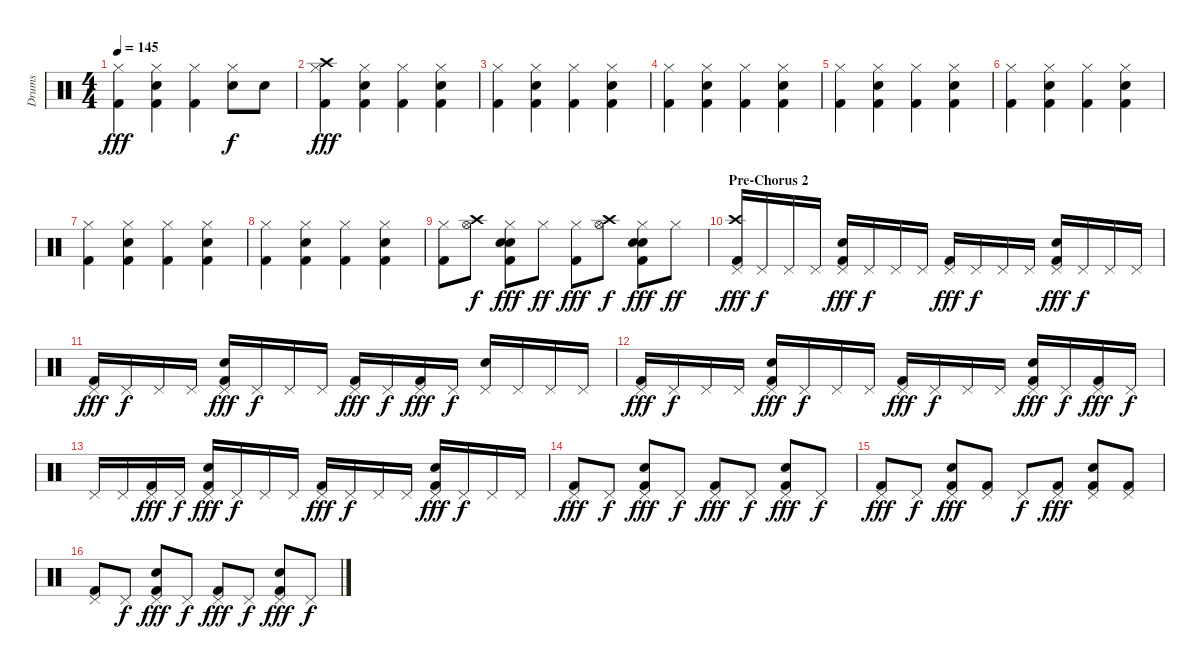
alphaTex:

\track ("Drums" "Drums") {instrument percussion}
\staff {score}
\articulation defaults
\ts (4 4)
\tempo 145
\clef neutral
\ks c
("Hi-Hat (closed)" "Kick (hit) 2").4{dy fff} ("Hi-Hat (closed)" "Electric Snare (hit)" "Kick (hit) 2").4 ("Hi-Hat (closed)" "Kick (hit) 2").4 ("Hi-Hat (closed)" "Electric Snare (hit)").8{dy f} "Electric Snare (hit)".8 |
("Crash high (hit)" "Hi-Hat (closed)" "Kick (hit) 2").4{dy fff} ("Hi-Hat (closed)" "Electric Snare (hit)" "Kick (hit) 2").4 ("Hi-Hat (closed)" "Kick (hit) 2").4 ("Hi-Hat (closed)" "Electric Snare (hit)" "Kick (hit) 2").4 |
("Hi-Hat (closed)" "Kick (hit) 2").4 ("Hi-Hat (closed)" "Electric Snare (hit)" "Kick (hit) 2").4 ("Hi-Hat (closed)" "Kick (hit) 2").4 ("Hi-Hat (closed)" "Electric Snare (hit)" "Kick (hit) 2").4 |
("Hi-Hat (closed)" "Kick (hit) 2").4 ("Hi-Hat (closed)" "Electric Snare (hit)" "Kick (hit) 2").4 ("Hi-Hat (closed)" "Kick (hit) 2").4 ("Hi-Hat (closed)" "Electric Snare (hit)" "Kick (hit) 2").4 |
("Hi-Hat (closed)" "Kick (hit) 2").4 ("Hi-Hat (closed)" "Electric Snare (hit)" "Kick (hit) 2").4 ("Hi-Hat (closed)" "Kick (hit) 2").4 ("Hi-Hat (closed)" "Electric Snare (hit)" "Kick (hit) 2").4 |
("Hi-Hat (closed)" "Kick (hit) 2").4 ("Hi-Hat (closed)" "Electric Snare (hit)" "Kick (hit) 2").4 ("Hi-Hat (closed)" "Kick (hit) 2").4 ("Hi-Hat (closed)" "Electric Snare (hit)" "Kick (hit) 2").4 |
("Hi-Hat (closed)" "Kick (hit) 2").4 ("Hi-Hat (closed)" "Electric Snare (hit)" "Kick (hit) 2").4 ("Hi-Hat (closed)" "Kick (hit) 2").4 ("Hi-Hat (closed)" "Electric Snare (hit)" "Kick (hit) 2").4 |
("Hi-Hat (closed)" "Kick (hit) 2").4 ("Hi-Hat (closed)" "Electric Snare (hit)" "Kick (hit) 2").4 ("Hi-Hat (closed)" "Kick (hit) 2").4 ("Hi-Hat (closed)" "Electric Snare (hit)" "Kick (hit) 2").4 |
("Hi-Hat (closed)" "Kick (hit) 2").8 ("Crash high (hit)" "Hi-Hat (open)").8{dy f} ("Hi-Hat (closed)" "Electric Snare (hit)" "Snare (hit) 2" "Kick (hit) 2").8{dy fff} "Hi-Hat (closed)".8{dy ff} ("Hi-Hat (closed)" "Kick (hit) 2").8{dy fff} ("Crash high (hit)" "Hi-Hat (open)").8{dy f} ("Hi-Hat (closed)" "Electric Snare (hit)" "Snare (hit) 2" "Kick (hit) 2").8{dy fff} "Hi-Hat (closed)".8{dy ff} |
\section ("" "Pre-Chorus 2")
("Crash high (hit)" "Pedal Hi-Hat (hit)" "Kick (hit) 2").16{dy fff} "Pedal Hi-Hat (hit)".16{dy f} "Pedal Hi-Hat (hit)".16 "Pedal Hi-Hat (hit)".16 ("Pedal Hi-Hat (hit)" "Electric Snare (hit)" "Kick (hit) 2").16{dy fff} "Pedal Hi-Hat (hit)".16{dy f} "Pedal Hi-Hat (hit)".16 "Pedal Hi-Hat (hit)".16 ("Pedal Hi-Hat (hit)" "Kick (hit) 2").16{dy fff} "Pedal Hi-Hat (hit)".16{dy f} "Pedal Hi-Hat (hit)".16 "Pedal Hi-Hat (hit)".16 ("Pedal Hi-Hat (hit)" "Electric Snare (hit)" "Kick (hit) 2").16{dy fff} "Pedal Hi-Hat (hit)".16{dy f} "Pedal Hi-Hat (hit)".16 "Pedal Hi-Hat (hit)".16 |
("Pedal Hi-Hat (hit)" "Kick (hit) 2").16{dy fff} "Pedal Hi-Hat (hit)".16{dy f} "Pedal Hi-Hat (hit)".16 "Pedal Hi-Hat (hit)".16 ("Pedal Hi-Hat (hit)" "Electric Snare (hit)" "Kick (hit) 2").16{dy fff} "Pedal Hi-Hat (hit)".16{dy f} "Pedal Hi-Hat (hit)".16 "Pedal Hi-Hat (hit)".16 ("Pedal Hi-Hat (hit)" "Kick (hit) 2").16{dy fff} "Pedal Hi-Hat (hit)".16{dy f} ("Pedal Hi-Hat (hit)" "Kick (hit) 2").16{dy fff} "Pedal Hi-Hat (hit)".16{dy f} ("Pedal Hi-Hat (hit)" "Electric Snare (hit)").16 "Pedal Hi-Hat (hit)".16 "Pedal Hi-Hat (hit)".16 "Pedal Hi-Hat (hit)".16 |
("Pedal Hi-Hat (hit)" "Kick (hit) 2").16{dy fff} "Pedal Hi-Hat (hit)".16{dy f} "Pedal Hi-Hat (hit)".16 "Pedal Hi-Hat (hit)".16 ("Pedal Hi-Hat (hit)" "Electric Snare (hit)" "Kick (hit) 2").16{dy fff} "Pedal Hi-Hat (hit)".16{dy f} "Pedal Hi-Hat (hit)".16 "Pedal Hi-Hat (hit)".16 ("Pedal Hi-Hat (hit)" "Kick (hit) 2").16{dy fff} "Pedal Hi-Hat (hit)".16{dy f} "Pedal Hi-Hat (hit)".16 "Pedal Hi-Hat (hit)".16 ("Pedal Hi-Hat (hit)" "Electric Snare (hit)" "Kick (hit) 2").16{dy fff} "Pedal Hi-Hat (hit)".16{dy f} ("Pedal Hi-Hat (hit)" "Kick (hit) 2").16{dy fff} "Pedal Hi-Hat (hit)".16{dy f} |
"Pedal Hi-Hat (hit)".16 "Pedal Hi-Hat (hit)".16 ("Pedal Hi-Hat (hit)" "Kick (hit) 2").16{dy fff} "Pedal Hi-Hat (hit)".16{dy f} ("Pedal Hi-Hat (hit)" "Electric Snare (hit)" "Kick (hit) 2").16{dy fff} "Pedal Hi-Hat (hit)".16{dy f} "Pedal Hi-Hat (hit)".16 "Pedal Hi-Hat (hit)".16 ("Pedal Hi-Hat (hit)" "Kick (hit) 2").16{dy fff} "Pedal Hi-Hat (hit)".16{dy f} "Pedal Hi-Hat (hit)".16 "Pedal Hi-Hat (hit)".16 ("Pedal Hi-Hat (hit)" "Electric Snare (hit)" "Kick (hit) 2").16{dy fff} "Pedal Hi-Hat (hit)".16{dy f} "Pedal Hi-Hat (hit)".16 "Pedal Hi-Hat (hit)".16 |
("Pedal Hi-Hat (hit)" "Kick (hit) 2").8{dy fff} "Pedal Hi-Hat (hit)".8{dy f} ("Pedal Hi-Hat (hit)" "Electric Snare (hit)" "Kick (hit) 2").8{dy fff} "Pedal Hi-Hat (hit)".8{dy f} ("Pedal Hi-Hat (hit)" "Kick (hit) 2").8{dy fff} "Pedal Hi-Hat (hit)".8{dy f} ("Pedal Hi-Hat (hit)" "Electric Snare (hit)" "Kick (hit) 2").8{dy fff} "Pedal Hi-Hat (hit)".8{dy f} |
("Pedal Hi-Hat (hit)" "Kick (hit) 2").8{dy fff} "Pedal Hi-Hat (hit)".8{dy f} ("Pedal Hi-Hat (hit)" "Electric Snare (hit)" "Kick (hit) 2").8{dy fff} ("Pedal Hi-Hat (hit)" "Kick (hit) 2").8 "Pedal Hi-Hat (hit)".8{dy f} ("Pedal Hi-Hat (hit)" "Kick (hit) 2").8{dy fff} ("Pedal Hi-Hat (hit)" "Electric Snare (hit)" "Kick (hit) 2").8 ("Pedal Hi-Hat (hit)" "Kick (hit) 2").8 |
("Pedal Hi-Hat (hit)" "Kick (hit) 2").8 "Pedal Hi-Hat (hit)".8{dy f} ("Pedal Hi-Hat (hit)" "Electric Snare (hit)" "Kick (hit) 2").8{dy fff} "Pedal Hi-Hat (hit)".8{dy f} ("Pedal Hi-Hat (hit)" "Kick (hit) 2").8{dy fff} "Pedal Hi-Hat (hit)".8{dy f} ("Pedal Hi-Hat (hit)" "Electric Snare (hit)" "Kick (hit) 2").8{dy fff} "Pedal Hi-Hat (hit)".8{dy f}
